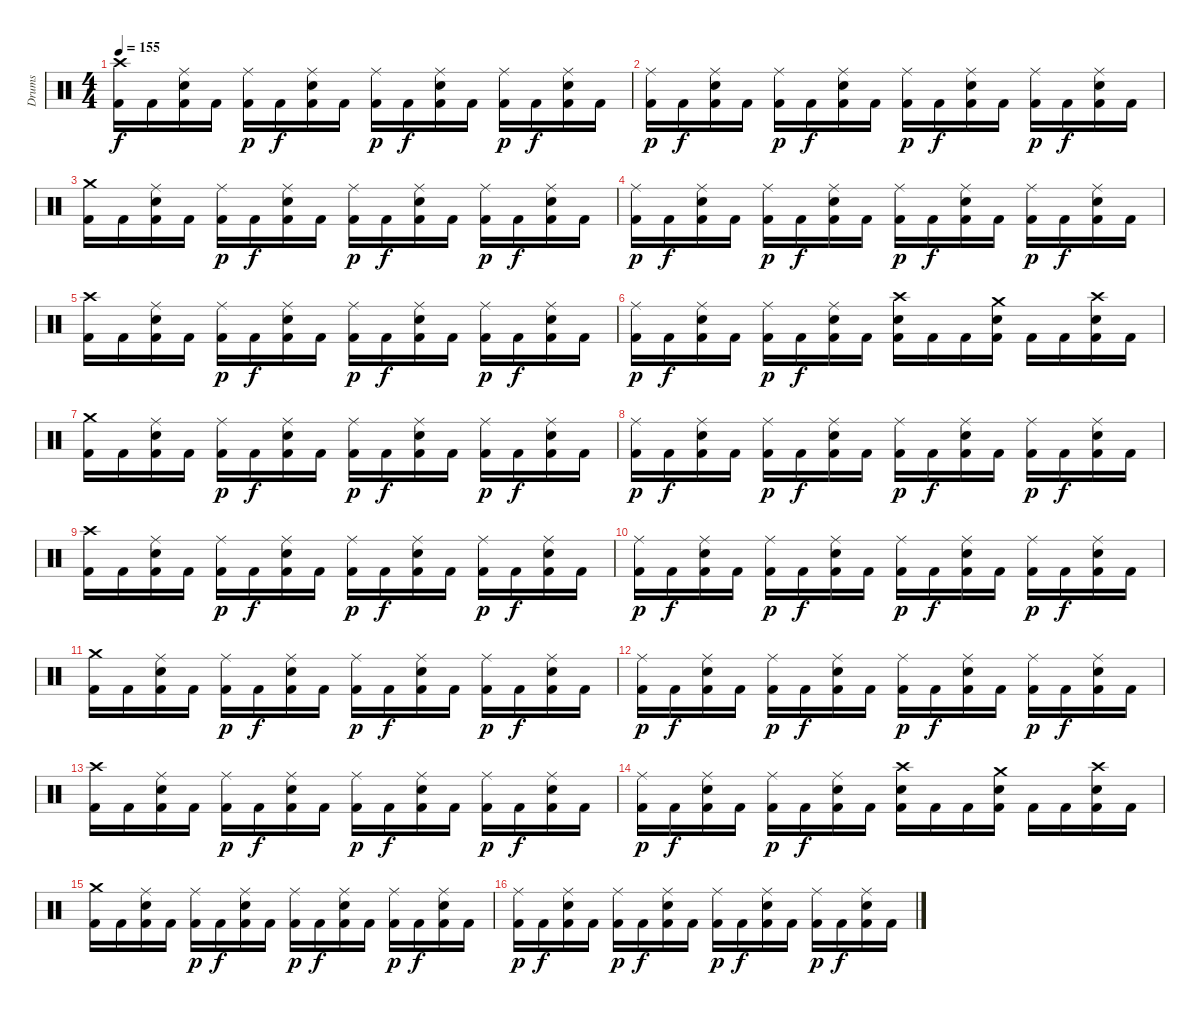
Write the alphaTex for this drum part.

\track ("Drums" "Drums") {instrument percussion}
\staff {score}
\articulation defaults
\ts (4 4)
\tempo 155
\clef neutral
\ks c
("Crash high (hit)" "Kick (hit) 2").16{dy f} "Kick (hit) 2".16 ("Ride (middle)" "Snare (hit) 2" "Kick (hit) 2").16 "Kick (hit) 2".16 ("Ride (middle)" "Kick (hit) 2").16{dy p} "Kick (hit) 2".16{dy f} ("Ride (middle)" "Snare (hit) 2" "Kick (hit) 2").16 "Kick (hit) 2".16 ("Ride (middle)" "Kick (hit) 2").16{dy p} "Kick (hit) 2".16{dy f} ("Ride (middle)" "Snare (hit) 2" "Kick (hit) 2").16 "Kick (hit) 2".16 ("Ride (middle)" "Kick (hit) 2").16{dy p} "Kick (hit) 2".16{dy f} ("Ride (middle)" "Snare (hit) 2" "Kick (hit) 2").16 "Kick (hit) 2".16 |
("Ride (middle)" "Kick (hit) 2").16{dy p} "Kick (hit) 2".16{dy f} ("Ride (middle)" "Snare (hit) 2" "Kick (hit) 2").16 "Kick (hit) 2".16 ("Ride (middle)" "Kick (hit) 2").16{dy p} "Kick (hit) 2".16{dy f} ("Ride (middle)" "Snare (hit) 2" "Kick (hit) 2").16 "Kick (hit) 2".16 ("Ride (middle)" "Kick (hit) 2").16{dy p} "Kick (hit) 2".16{dy f} ("Ride (middle)" "Snare (hit) 2" "Kick (hit) 2").16 "Kick (hit) 2".16 ("Ride (middle)" "Kick (hit) 2").16{dy p} "Kick (hit) 2".16{dy f} ("Ride (middle)" "Snare (hit) 2" "Kick (hit) 2").16 "Kick (hit) 2".16 |
("Crash medium (hit)" "Kick (hit) 2").16 "Kick (hit) 2".16 ("Ride (middle)" "Snare (hit) 2" "Kick (hit) 2").16 "Kick (hit) 2".16 ("Ride (middle)" "Kick (hit) 2").16{dy p} "Kick (hit) 2".16{dy f} ("Ride (middle)" "Snare (hit) 2" "Kick (hit) 2").16 "Kick (hit) 2".16 ("Ride (middle)" "Kick (hit) 2").16{dy p} "Kick (hit) 2".16{dy f} ("Ride (middle)" "Snare (hit) 2" "Kick (hit) 2").16 "Kick (hit) 2".16 ("Ride (middle)" "Kick (hit) 2").16{dy p} "Kick (hit) 2".16{dy f} ("Ride (middle)" "Snare (hit) 2" "Kick (hit) 2").16 "Kick (hit) 2".16 |
("Ride (middle)" "Kick (hit) 2").16{dy p} "Kick (hit) 2".16{dy f} ("Ride (middle)" "Snare (hit) 2" "Kick (hit) 2").16 "Kick (hit) 2".16 ("Ride (middle)" "Kick (hit) 2").16{dy p} "Kick (hit) 2".16{dy f} ("Ride (middle)" "Snare (hit) 2" "Kick (hit) 2").16 "Kick (hit) 2".16 ("Ride (middle)" "Kick (hit) 2").16{dy p} "Kick (hit) 2".16{dy f} ("Ride (middle)" "Snare (hit) 2" "Kick (hit) 2").16 "Kick (hit) 2".16 ("Ride (middle)" "Kick (hit) 2").16{dy p} "Kick (hit) 2".16{dy f} ("Ride (middle)" "Snare (hit) 2" "Kick (hit) 2").16 "Kick (hit) 2".16 |
("Crash high (hit)" "Kick (hit) 2").16 "Kick (hit) 2".16 ("Ride (middle)" "Snare (hit) 2" "Kick (hit) 2").16 "Kick (hit) 2".16 ("Ride (middle)" "Kick (hit) 2").16{dy p} "Kick (hit) 2".16{dy f} ("Ride (middle)" "Snare (hit) 2" "Kick (hit) 2").16 "Kick (hit) 2".16 ("Ride (middle)" "Kick (hit) 2").16{dy p} "Kick (hit) 2".16{dy f} ("Ride (middle)" "Snare (hit) 2" "Kick (hit) 2").16 "Kick (hit) 2".16 ("Ride (middle)" "Kick (hit) 2").16{dy p} "Kick (hit) 2".16{dy f} ("Ride (middle)" "Snare (hit) 2" "Kick (hit) 2").16 "Kick (hit) 2".16 |
("Ride (middle)" "Kick (hit) 2").16{dy p} "Kick (hit) 2".16{dy f} ("Ride (middle)" "Snare (hit) 2" "Kick (hit) 2").16 "Kick (hit) 2".16 ("Ride (middle)" "Kick (hit) 2").16{dy p} "Kick (hit) 2".16{dy f} ("Ride (middle)" "Snare (hit) 2" "Kick (hit) 2").16 "Kick (hit) 2".16 ("Crash high (hit)" "Snare (hit) 2" "Kick (hit) 2").16 "Kick (hit) 2".16 "Kick (hit) 2".16 ("Crash medium (hit)" "Snare (hit) 2" "Kick (hit) 2").16 "Kick (hit) 2".16 "Kick (hit) 2".16 ("Crash high (hit)" "Snare (hit) 2" "Kick (hit) 2").16 "Kick (hit) 2".16 |
("Crash medium (hit)" "Kick (hit) 2").16 "Kick (hit) 2".16 ("Ride (middle)" "Snare (hit) 2" "Kick (hit) 2").16 "Kick (hit) 2".16 ("Ride (middle)" "Kick (hit) 2").16{dy p} "Kick (hit) 2".16{dy f} ("Ride (middle)" "Snare (hit) 2" "Kick (hit) 2").16 "Kick (hit) 2".16 ("Ride (middle)" "Kick (hit) 2").16{dy p} "Kick (hit) 2".16{dy f} ("Ride (middle)" "Snare (hit) 2" "Kick (hit) 2").16 "Kick (hit) 2".16 ("Ride (middle)" "Kick (hit) 2").16{dy p} "Kick (hit) 2".16{dy f} ("Ride (middle)" "Snare (hit) 2" "Kick (hit) 2").16 "Kick (hit) 2".16 |
("Ride (middle)" "Kick (hit) 2").16{dy p} "Kick (hit) 2".16{dy f} ("Ride (middle)" "Snare (hit) 2" "Kick (hit) 2").16 "Kick (hit) 2".16 ("Ride (middle)" "Kick (hit) 2").16{dy p} "Kick (hit) 2".16{dy f} ("Ride (middle)" "Snare (hit) 2" "Kick (hit) 2").16 "Kick (hit) 2".16 ("Ride (middle)" "Kick (hit) 2").16{dy p} "Kick (hit) 2".16{dy f} ("Ride (middle)" "Snare (hit) 2" "Kick (hit) 2").16 "Kick (hit) 2".16 ("Ride (middle)" "Kick (hit) 2").16{dy p} "Kick (hit) 2".16{dy f} ("Ride (middle)" "Snare (hit) 2" "Kick (hit) 2").16 "Kick (hit) 2".16 |
("Crash high (hit)" "Kick (hit) 2").16 "Kick (hit) 2".16 ("Ride (middle)" "Snare (hit) 2" "Kick (hit) 2").16 "Kick (hit) 2".16 ("Ride (middle)" "Kick (hit) 2").16{dy p} "Kick (hit) 2".16{dy f} ("Ride (middle)" "Snare (hit) 2" "Kick (hit) 2").16 "Kick (hit) 2".16 ("Ride (middle)" "Kick (hit) 2").16{dy p} "Kick (hit) 2".16{dy f} ("Ride (middle)" "Snare (hit) 2" "Kick (hit) 2").16 "Kick (hit) 2".16 ("Ride (middle)" "Kick (hit) 2").16{dy p} "Kick (hit) 2".16{dy f} ("Ride (middle)" "Snare (hit) 2" "Kick (hit) 2").16 "Kick (hit) 2".16 |
("Ride (middle)" "Kick (hit) 2").16{dy p} "Kick (hit) 2".16{dy f} ("Ride (middle)" "Snare (hit) 2" "Kick (hit) 2").16 "Kick (hit) 2".16 ("Ride (middle)" "Kick (hit) 2").16{dy p} "Kick (hit) 2".16{dy f} ("Ride (middle)" "Snare (hit) 2" "Kick (hit) 2").16 "Kick (hit) 2".16 ("Ride (middle)" "Kick (hit) 2").16{dy p} "Kick (hit) 2".16{dy f} ("Ride (middle)" "Snare (hit) 2" "Kick (hit) 2").16 "Kick (hit) 2".16 ("Ride (middle)" "Kick (hit) 2").16{dy p} "Kick (hit) 2".16{dy f} ("Ride (middle)" "Snare (hit) 2" "Kick (hit) 2").16 "Kick (hit) 2".16 |
\section ("" "")
("Crash medium (hit)" "Kick (hit) 2").16 "Kick (hit) 2".16 ("Ride (middle)" "Snare (hit) 2" "Kick (hit) 2").16 "Kick (hit) 2".16 ("Ride (middle)" "Kick (hit) 2").16{dy p} "Kick (hit) 2".16{dy f} ("Ride (middle)" "Snare (hit) 2" "Kick (hit) 2").16 "Kick (hit) 2".16 ("Ride (middle)" "Kick (hit) 2").16{dy p} "Kick (hit) 2".16{dy f} ("Ride (middle)" "Snare (hit) 2" "Kick (hit) 2").16 "Kick (hit) 2".16 ("Ride (middle)" "Kick (hit) 2").16{dy p} "Kick (hit) 2".16{dy f} ("Ride (middle)" "Snare (hit) 2" "Kick (hit) 2").16 "Kick (hit) 2".16 |
("Ride (middle)" "Kick (hit) 2").16{dy p} "Kick (hit) 2".16{dy f} ("Ride (middle)" "Snare (hit) 2" "Kick (hit) 2").16 "Kick (hit) 2".16 ("Ride (middle)" "Kick (hit) 2").16{dy p} "Kick (hit) 2".16{dy f} ("Ride (middle)" "Snare (hit) 2" "Kick (hit) 2").16 "Kick (hit) 2".16 ("Ride (middle)" "Kick (hit) 2").16{dy p} "Kick (hit) 2".16{dy f} ("Ride (middle)" "Snare (hit) 2" "Kick (hit) 2").16 "Kick (hit) 2".16 ("Ride (middle)" "Kick (hit) 2").16{dy p} "Kick (hit) 2".16{dy f} ("Ride (middle)" "Snare (hit) 2" "Kick (hit) 2").16 "Kick (hit) 2".16 |
("Crash high (hit)" "Kick (hit) 2").16 "Kick (hit) 2".16 ("Ride (middle)" "Snare (hit) 2" "Kick (hit) 2").16 "Kick (hit) 2".16 ("Ride (middle)" "Kick (hit) 2").16{dy p} "Kick (hit) 2".16{dy f} ("Ride (middle)" "Snare (hit) 2" "Kick (hit) 2").16 "Kick (hit) 2".16 ("Ride (middle)" "Kick (hit) 2").16{dy p} "Kick (hit) 2".16{dy f} ("Ride (middle)" "Snare (hit) 2" "Kick (hit) 2").16 "Kick (hit) 2".16 ("Ride (middle)" "Kick (hit) 2").16{dy p} "Kick (hit) 2".16{dy f} ("Ride (middle)" "Snare (hit) 2" "Kick (hit) 2").16 "Kick (hit) 2".16 |
("Ride (middle)" "Kick (hit) 2").16{dy p} "Kick (hit) 2".16{dy f} ("Ride (middle)" "Snare (hit) 2" "Kick (hit) 2").16 "Kick (hit) 2".16 ("Ride (middle)" "Kick (hit) 2").16{dy p} "Kick (hit) 2".16{dy f} ("Ride (middle)" "Snare (hit) 2" "Kick (hit) 2").16 "Kick (hit) 2".16 ("Crash high (hit)" "Snare (hit) 2" "Kick (hit) 2").16 "Kick (hit) 2".16 "Kick (hit) 2".16 ("Crash medium (hit)" "Snare (hit) 2" "Kick (hit) 2").16 "Kick (hit) 2".16 "Kick (hit) 2".16 ("Crash high (hit)" "Snare (hit) 2" "Kick (hit) 2").16 "Kick (hit) 2".16 |
("Crash medium (hit)" "Kick (hit) 2").16 "Kick (hit) 2".16 ("Ride (middle)" "Snare (hit) 2" "Kick (hit) 2").16 "Kick (hit) 2".16 ("Ride (middle)" "Kick (hit) 2").16{dy p} "Kick (hit) 2".16{dy f} ("Ride (middle)" "Snare (hit) 2" "Kick (hit) 2").16 "Kick (hit) 2".16 ("Ride (middle)" "Kick (hit) 2").16{dy p} "Kick (hit) 2".16{dy f} ("Ride (middle)" "Snare (hit) 2" "Kick (hit) 2").16 "Kick (hit) 2".16 ("Ride (middle)" "Kick (hit) 2").16{dy p} "Kick (hit) 2".16{dy f} ("Ride (middle)" "Snare (hit) 2" "Kick (hit) 2").16 "Kick (hit) 2".16 |
("Ride (middle)" "Kick (hit) 2").16{dy p} "Kick (hit) 2".16{dy f} ("Ride (middle)" "Snare (hit) 2" "Kick (hit) 2").16 "Kick (hit) 2".16 ("Ride (middle)" "Kick (hit) 2").16{dy p} "Kick (hit) 2".16{dy f} ("Ride (middle)" "Snare (hit) 2" "Kick (hit) 2").16 "Kick (hit) 2".16 ("Ride (middle)" "Kick (hit) 2").16{dy p} "Kick (hit) 2".16{dy f} ("Ride (middle)" "Snare (hit) 2" "Kick (hit) 2").16 "Kick (hit) 2".16 ("Ride (middle)" "Kick (hit) 2").16{dy p} "Kick (hit) 2".16{dy f} ("Ride (middle)" "Snare (hit) 2" "Kick (hit) 2").16 "Kick (hit) 2".16
